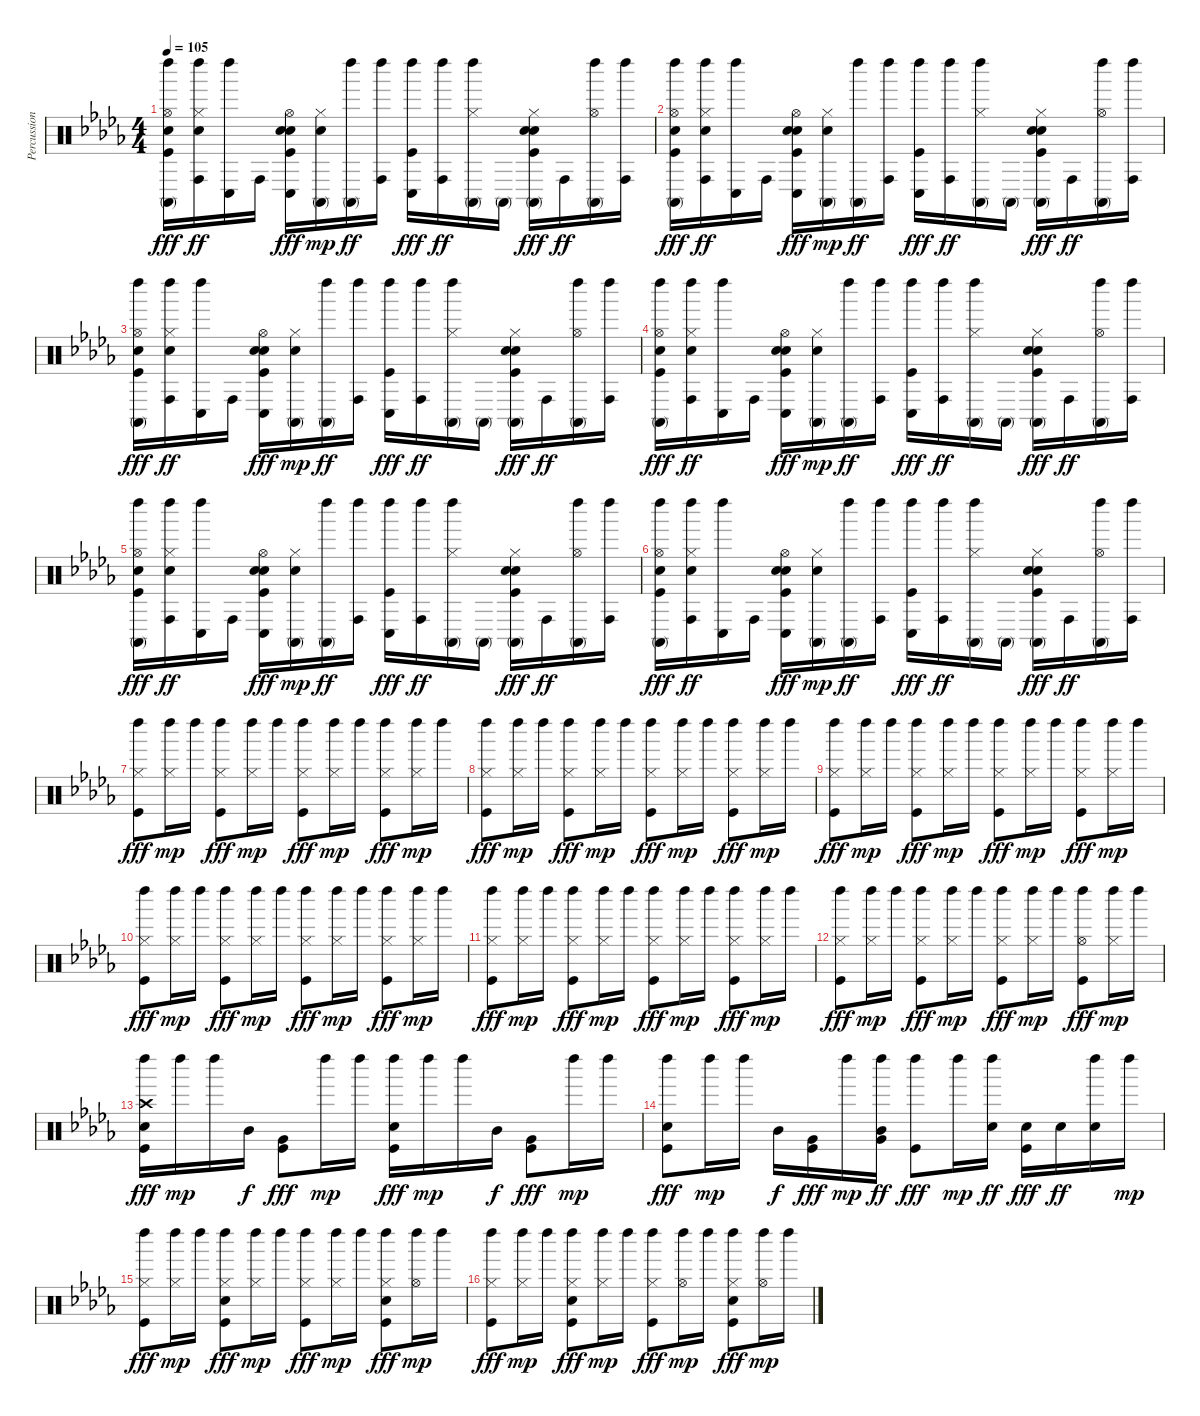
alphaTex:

\track ("Percussion" "Percussion") {instrument percussion}
\staff {score}
\articulation defaults
\ts (4 4)
\tempo 105
\clef neutral
\ks db
("Hi-Hat (open)" "Left Maraca (hit)" "Conga high (mute)" "Hand Clap (hit)" "Kick (hit)").16{dy fff} ("Hi-Hat (closed)" "Left Maraca (hit)" "Conga high (hit)" "Hand Clap (hit)").16{dy ff} ("Left Maraca (hit)" "Conga low (hit)").16 "Conga high (hit)".16 ("Hi-Hat (open)" "Conga low (hit)" "Hand Clap (hit)" "Snare (hit) 2" "Kick (hit)").16{dy fff} ("Hi-Hat (closed)" "Conga high (mute)" "Hand Clap (hit)").16{dy mp} ("Left Maraca (hit)" "Conga high (mute)").16{dy ff} ("Left Maraca (hit)" "Conga high (hit)").16 ("Left Maraca (hit)" "Conga low (hit)" "Kick (hit)").16{dy fff} ("Left Maraca (hit)" "Conga high (hit)").16{dy ff} ("Hi-Hat (closed)" "Left Maraca (hit)" "Conga high (mute)").16 "Conga high (mute)".16 ("Hi-Hat (closed)" "Conga high (mute)" "Hand Clap (hit)" "Snare (hit) 2" "Kick (hit)").16{dy fff} "Conga high (hit)".16{dy ff} ("Hi-Hat (open)" "Left Maraca (hit)" "Conga high (mute)").16 ("Left Maraca (hit)" "Conga high (hit)").16 |
("Hi-Hat (open)" "Left Maraca (hit)" "Conga high (mute)" "Hand Clap (hit)" "Kick (hit)").16{dy fff} ("Hi-Hat (closed)" "Left Maraca (hit)" "Conga high (hit)" "Hand Clap (hit)").16{dy ff} ("Left Maraca (hit)" "Conga low (hit)").16 "Conga high (hit)".16 ("Hi-Hat (open)" "Conga low (hit)" "Hand Clap (hit)" "Snare (hit) 2" "Kick (hit)").16{dy fff} ("Hi-Hat (closed)" "Conga high (mute)" "Hand Clap (hit)").16{dy mp} ("Left Maraca (hit)" "Conga high (mute)").16{dy ff} ("Left Maraca (hit)" "Conga high (hit)").16 ("Left Maraca (hit)" "Conga low (hit)" "Kick (hit)").16{dy fff} ("Left Maraca (hit)" "Conga high (hit)").16{dy ff} ("Hi-Hat (closed)" "Left Maraca (hit)" "Conga high (mute)").16 "Conga high (mute)".16 ("Hi-Hat (closed)" "Conga high (mute)" "Hand Clap (hit)" "Snare (hit) 2" "Kick (hit)").16{dy fff} "Conga high (hit)".16{dy ff} ("Hi-Hat (open)" "Left Maraca (hit)" "Conga high (mute)").16 ("Left Maraca (hit)" "Conga high (hit)").16 |
("Hi-Hat (open)" "Left Maraca (hit)" "Conga high (mute)" "Hand Clap (hit)" "Kick (hit)").16{dy fff} ("Hi-Hat (closed)" "Left Maraca (hit)" "Conga high (hit)" "Hand Clap (hit)").16{dy ff} ("Left Maraca (hit)" "Conga low (hit)").16 "Conga high (hit)".16 ("Hi-Hat (open)" "Conga low (hit)" "Hand Clap (hit)" "Snare (hit) 2" "Kick (hit)").16{dy fff} ("Hi-Hat (closed)" "Conga high (mute)" "Hand Clap (hit)").16{dy mp} ("Left Maraca (hit)" "Conga high (mute)").16{dy ff} ("Left Maraca (hit)" "Conga high (hit)").16 ("Left Maraca (hit)" "Conga low (hit)" "Kick (hit)").16{dy fff} ("Left Maraca (hit)" "Conga high (hit)").16{dy ff} ("Hi-Hat (closed)" "Left Maraca (hit)" "Conga high (mute)").16 "Conga high (mute)".16 ("Hi-Hat (closed)" "Conga high (mute)" "Hand Clap (hit)" "Snare (hit) 2" "Kick (hit)").16{dy fff} "Conga high (hit)".16{dy ff} ("Hi-Hat (open)" "Left Maraca (hit)" "Conga high (mute)").16 ("Left Maraca (hit)" "Conga high (hit)").16 |
("Hi-Hat (open)" "Left Maraca (hit)" "Conga high (mute)" "Hand Clap (hit)" "Kick (hit)").16{dy fff} ("Hi-Hat (closed)" "Left Maraca (hit)" "Conga high (hit)" "Hand Clap (hit)").16{dy ff} ("Left Maraca (hit)" "Conga low (hit)").16 "Conga high (hit)".16 ("Hi-Hat (open)" "Conga low (hit)" "Hand Clap (hit)" "Snare (hit) 2" "Kick (hit)").16{dy fff} ("Hi-Hat (closed)" "Conga high (mute)" "Hand Clap (hit)").16{dy mp} ("Left Maraca (hit)" "Conga high (mute)").16{dy ff} ("Left Maraca (hit)" "Conga high (hit)").16 ("Left Maraca (hit)" "Conga low (hit)" "Kick (hit)").16{dy fff} ("Left Maraca (hit)" "Conga high (hit)").16{dy ff} ("Hi-Hat (closed)" "Left Maraca (hit)" "Conga high (mute)").16 "Conga high (mute)".16 ("Hi-Hat (closed)" "Conga high (mute)" "Hand Clap (hit)" "Snare (hit) 2" "Kick (hit)").16{dy fff} "Conga high (hit)".16{dy ff} ("Hi-Hat (open)" "Left Maraca (hit)" "Conga high (mute)").16 ("Left Maraca (hit)" "Conga high (hit)").16 |
("Hi-Hat (open)" "Left Maraca (hit)" "Conga high (mute)" "Hand Clap (hit)" "Kick (hit)").16{dy fff} ("Hi-Hat (closed)" "Left Maraca (hit)" "Conga high (hit)" "Hand Clap (hit)").16{dy ff} ("Left Maraca (hit)" "Conga low (hit)").16 "Conga high (hit)".16 ("Hi-Hat (open)" "Conga low (hit)" "Hand Clap (hit)" "Snare (hit) 2" "Kick (hit)").16{dy fff} ("Hi-Hat (closed)" "Conga high (mute)" "Hand Clap (hit)").16{dy mp} ("Left Maraca (hit)" "Conga high (mute)").16{dy ff} ("Left Maraca (hit)" "Conga high (hit)").16 ("Left Maraca (hit)" "Conga low (hit)" "Kick (hit)").16{dy fff} ("Left Maraca (hit)" "Conga high (hit)").16{dy ff} ("Hi-Hat (closed)" "Left Maraca (hit)" "Conga high (mute)").16 "Conga high (mute)".16 ("Hi-Hat (closed)" "Conga high (mute)" "Hand Clap (hit)" "Snare (hit) 2" "Kick (hit)").16{dy fff} "Conga high (hit)".16{dy ff} ("Hi-Hat (open)" "Left Maraca (hit)" "Conga high (mute)").16 ("Left Maraca (hit)" "Conga high (hit)").16 |
("Hi-Hat (open)" "Left Maraca (hit)" "Conga high (mute)" "Hand Clap (hit)" "Kick (hit)").16{dy fff} ("Hi-Hat (closed)" "Left Maraca (hit)" "Conga high (hit)" "Hand Clap (hit)").16{dy ff} ("Left Maraca (hit)" "Conga low (hit)").16 "Conga high (hit)".16 ("Hi-Hat (open)" "Conga low (hit)" "Hand Clap (hit)" "Snare (hit) 2" "Kick (hit)").16{dy fff} ("Hi-Hat (closed)" "Conga high (mute)" "Hand Clap (hit)").16{dy mp} ("Left Maraca (hit)" "Conga high (mute)").16{dy ff} ("Left Maraca (hit)" "Conga high (hit)").16 ("Left Maraca (hit)" "Conga low (hit)" "Kick (hit)").16{dy fff} ("Left Maraca (hit)" "Conga high (hit)").16{dy ff} ("Hi-Hat (closed)" "Left Maraca (hit)" "Conga high (mute)").16 "Conga high (mute)".16 ("Hi-Hat (closed)" "Conga high (mute)" "Hand Clap (hit)" "Snare (hit) 2" "Kick (hit)").16{dy fff} "Conga high (hit)".16{dy ff} ("Hi-Hat (open)" "Left Maraca (hit)" "Conga high (mute)").16 ("Left Maraca (hit)" "Conga high (hit)").16 |
("Hi-Hat (closed)" "Left Maraca (hit)" "Kick (hit)").8{dy fff} ("Hi-Hat (closed)" "Left Maraca (hit)").16{dy mp} "Left Maraca (hit)".16 ("Hi-Hat (closed)" "Left Maraca (hit)" "Kick (hit)").8{dy fff} ("Hi-Hat (closed)" "Left Maraca (hit)").16{dy mp} "Left Maraca (hit)".16 ("Hi-Hat (closed)" "Left Maraca (hit)" "Kick (hit)").8{dy fff} ("Hi-Hat (closed)" "Left Maraca (hit)").16{dy mp} "Left Maraca (hit)".16 ("Hi-Hat (closed)" "Left Maraca (hit)" "Kick (hit)").8{dy fff} ("Hi-Hat (closed)" "Left Maraca (hit)").16{dy mp} "Left Maraca (hit)".16 |
("Hi-Hat (closed)" "Left Maraca (hit)" "Kick (hit)").8{dy fff} ("Hi-Hat (closed)" "Left Maraca (hit)").16{dy mp} "Left Maraca (hit)".16 ("Hi-Hat (closed)" "Left Maraca (hit)" "Kick (hit)").8{dy fff} ("Hi-Hat (closed)" "Left Maraca (hit)").16{dy mp} "Left Maraca (hit)".16 ("Hi-Hat (closed)" "Left Maraca (hit)" "Kick (hit)").8{dy fff} ("Hi-Hat (closed)" "Left Maraca (hit)").16{dy mp} "Left Maraca (hit)".16 ("Hi-Hat (closed)" "Left Maraca (hit)" "Kick (hit)").8{dy fff} ("Hi-Hat (closed)" "Left Maraca (hit)").16{dy mp} "Left Maraca (hit)".16 |
("Hi-Hat (closed)" "Left Maraca (hit)" "Kick (hit)").8{dy fff} ("Hi-Hat (closed)" "Left Maraca (hit)").16{dy mp} "Left Maraca (hit)".16 ("Hi-Hat (closed)" "Left Maraca (hit)" "Kick (hit)").8{dy fff} ("Hi-Hat (closed)" "Left Maraca (hit)").16{dy mp} "Left Maraca (hit)".16 ("Hi-Hat (closed)" "Left Maraca (hit)" "Kick (hit)").8{dy fff} ("Hi-Hat (closed)" "Left Maraca (hit)").16{dy mp} "Left Maraca (hit)".16 ("Hi-Hat (closed)" "Left Maraca (hit)" "Kick (hit)").8{dy fff} ("Hi-Hat (closed)" "Left Maraca (hit)").16{dy mp} "Left Maraca (hit)".16 |
("Hi-Hat (closed)" "Left Maraca (hit)" "Kick (hit)").8{dy fff} ("Hi-Hat (closed)" "Left Maraca (hit)").16{dy mp} "Left Maraca (hit)".16 ("Hi-Hat (closed)" "Left Maraca (hit)" "Kick (hit)").8{dy fff} ("Hi-Hat (closed)" "Left Maraca (hit)").16{dy mp} "Left Maraca (hit)".16 ("Hi-Hat (closed)" "Left Maraca (hit)" "Kick (hit)").8{dy fff} ("Hi-Hat (closed)" "Left Maraca (hit)").16{dy mp} "Left Maraca (hit)".16 ("Hi-Hat (closed)" "Left Maraca (hit)" "Kick (hit)").8{dy fff} ("Hi-Hat (closed)" "Left Maraca (hit)").16{dy mp} "Left Maraca (hit)".16 |
("Hi-Hat (closed)" "Left Maraca (hit)" "Kick (hit)").8{dy fff} ("Hi-Hat (closed)" "Left Maraca (hit)").16{dy mp} "Left Maraca (hit)".16 ("Hi-Hat (closed)" "Left Maraca (hit)" "Kick (hit)").8{dy fff} ("Hi-Hat (closed)" "Left Maraca (hit)").16{dy mp} "Left Maraca (hit)".16 ("Hi-Hat (closed)" "Left Maraca (hit)" "Kick (hit)").8{dy fff} ("Hi-Hat (closed)" "Left Maraca (hit)").16{dy mp} "Left Maraca (hit)".16 ("Hi-Hat (closed)" "Left Maraca (hit)" "Kick (hit)").8{dy fff} ("Hi-Hat (closed)" "Left Maraca (hit)").16{dy mp} "Left Maraca (hit)".16 |
("Hi-Hat (closed)" "Left Maraca (hit)" "Kick (hit)").8{dy fff} ("Hi-Hat (closed)" "Left Maraca (hit)").16{dy mp} "Left Maraca (hit)".16 ("Hi-Hat (closed)" "Left Maraca (hit)" "Kick (hit)").8{dy fff} ("Hi-Hat (closed)" "Left Maraca (hit)").16{dy mp} "Left Maraca (hit)".16 ("Hi-Hat (closed)" "Left Maraca (hit)" "Kick (hit)").8{dy fff} ("Hi-Hat (closed)" "Left Maraca (hit)").16{dy mp} "Left Maraca (hit)".16 ("Hi-Hat (open)" "Left Maraca (hit)" "Kick (hit)").8{dy fff} ("Hi-Hat (closed)" "Left Maraca (hit)").16{dy mp} "Left Maraca (hit)".16 |
("Crash high (hit)" "Left Maraca (hit)" "Snare (hit) 2" "Kick (hit)").16{dy fff} "Left Maraca (hit)".16{dy mp} "Left Maraca (hit)".16 "Mid Tom (hit)".16{dy f} ("Very Low Tom (hit)" "Kick (hit)").8{dy fff} "Left Maraca (hit)".16{dy mp} "Left Maraca (hit)".16 ("Left Maraca (hit)" "Snare (hit) 2" "Kick (hit)").16{dy fff} "Left Maraca (hit)".16{dy mp} "Left Maraca (hit)".16 "Mid Tom (hit)".16{dy f} ("Very Low Tom (hit)" "Kick (hit)").8{dy fff} "Left Maraca (hit)".16{dy mp} "Left Maraca (hit)".16 |
("Left Maraca (hit)" "Snare (hit) 2" "Kick (hit)").8{dy fff} "Left Maraca (hit)".16{dy mp} "Left Maraca (hit)".16 "Mid Tom (hit)".16{dy f} ("Very Low Tom (hit)" "Kick (hit)").16{dy fff} "Left Maraca (hit)".16{dy mp} ("Left Maraca (hit)" "Mid Tom (hit)" "Very Low Tom (hit)").16{dy ff} ("Left Maraca (hit)" "Kick (hit)").8{dy fff} "Left Maraca (hit)".16{dy mp} ("Left Maraca (hit)" "Snare (hit) 2").16{dy ff} ("Snare (hit) 2" "Kick (hit)").16{dy fff} "Snare (hit) 2".16{dy ff} ("Left Maraca (hit)" "Snare (hit) 2").16 "Left Maraca (hit)".16{dy mp} |
("Hi-Hat (closed)" "Left Maraca (hit)" "Kick (hit)").8{dy fff} ("Hi-Hat (closed)" "Left Maraca (hit)").16{dy mp} "Left Maraca (hit)".16 ("Hi-Hat (closed)" "Left Maraca (hit)" "Snare (hit) 2" "Kick (hit)").8{dy fff} ("Hi-Hat (closed)" "Left Maraca (hit)").16{dy mp} "Left Maraca (hit)".16 ("Hi-Hat (closed)" "Left Maraca (hit)" "Kick (hit)").8{dy fff} ("Hi-Hat (closed)" "Left Maraca (hit)").16{dy mp} "Left Maraca (hit)".16 ("Hi-Hat (closed)" "Left Maraca (hit)" "Snare (hit) 2" "Kick (hit)").8{dy fff} ("Hi-Hat (open)" "Left Maraca (hit)").16{dy mp} "Left Maraca (hit)".16 |
("Hi-Hat (closed)" "Left Maraca (hit)" "Kick (hit)").8{dy fff} ("Hi-Hat (closed)" "Left Maraca (hit)").16{dy mp} "Left Maraca (hit)".16 ("Hi-Hat (closed)" "Left Maraca (hit)" "Snare (hit) 2" "Kick (hit)").8{dy fff} ("Hi-Hat (closed)" "Left Maraca (hit)").16{dy mp} "Left Maraca (hit)".16 ("Hi-Hat (closed)" "Left Maraca (hit)" "Kick (hit)").8{dy fff} ("Hi-Hat (open)" "Left Maraca (hit)").16{dy mp} "Left Maraca (hit)".16 ("Hi-Hat (closed)" "Left Maraca (hit)" "Snare (hit) 2" "Kick (hit)").8{dy fff} ("Hi-Hat (open)" "Left Maraca (hit)").16{dy mp} "Left Maraca (hit)".16
